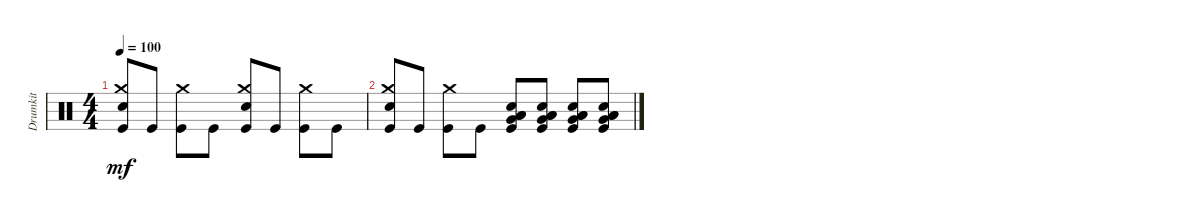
\track ("Drumkit" "Drumkit") {instrument percussion}
\staff {score}
\articulation defaults
\ts (4 4)
\tempo 100
\clef neutral
\ks c
("Kick (hit)" "Crash medium (hit)" "Snare (hit) 2").8{dy mf} "Kick (hit)".8 ("Kick (hit)" "Crash medium (hit)").8 "Kick (hit)".8 ("Kick (hit)" "Snare (hit) 2" "Crash medium (hit)").8 "Kick (hit)".8 ("Kick (hit)" "Crash medium (hit)").8 "Kick (hit)".8 |
("Kick (hit)" "Crash medium (hit)" "Snare (hit) 2").8 "Kick (hit)".8 ("Kick (hit)" "Crash medium (hit)").8 "Kick (hit)".8 ("Kick (hit)" "Low Floor Tom (hit)" "Very Low Tom (hit)" "Low Tom (hit)" "Snare (hit) 2").8 ("Snare (hit) 2" "Low Tom (hit)" "Very Low Tom (hit)" "Low Floor Tom (hit)" "Kick (hit)").8 ("Kick (hit)" "Low Floor Tom (hit)" "Very Low Tom (hit)" "Low Tom (hit)" "Snare (hit) 2").8 ("Snare (hit) 2" "Low Tom (hit)" "Very Low Tom (hit)" "Low Floor Tom (hit)" "Kick (hit)").8
